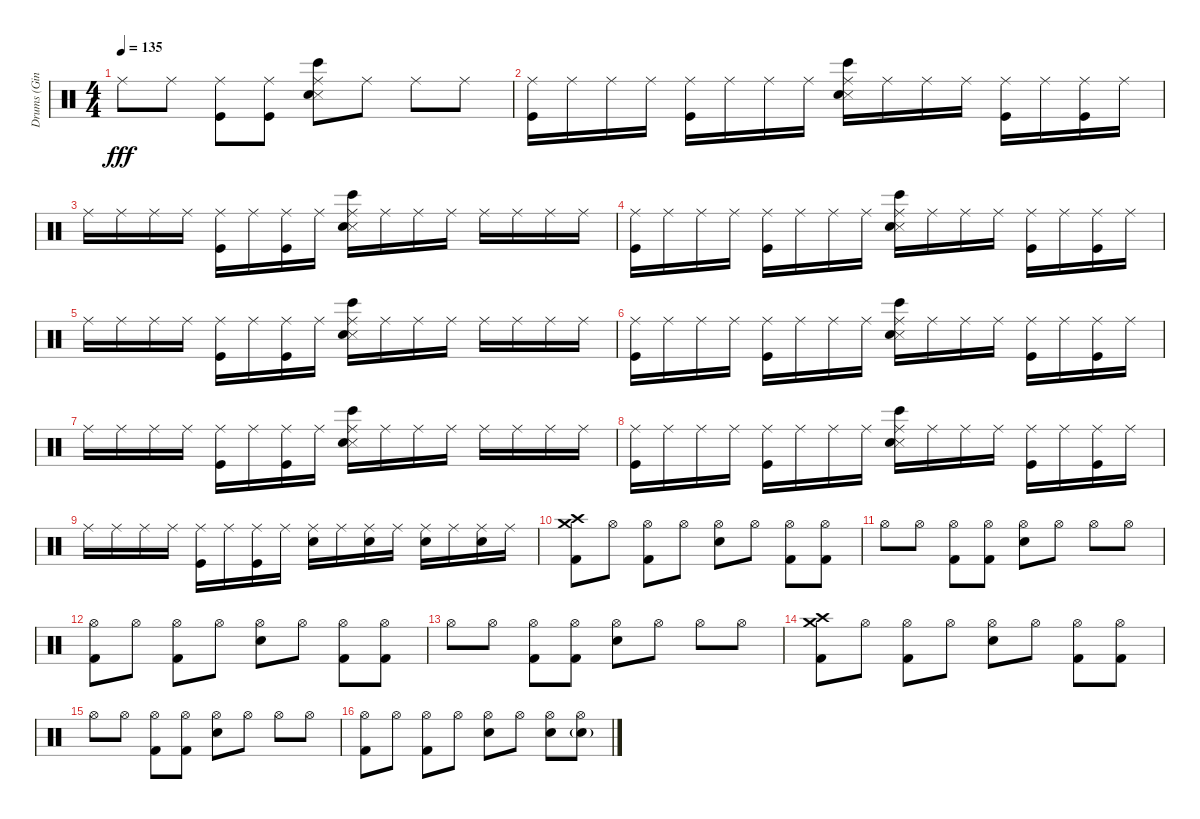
\track ("Drums (Ginger Fish)" "Drums (Gin") {instrument percussion}
\staff {score}
\articulation defaults
\ts (4 4)
\tempo 135
\clef neutral
\ks c "Ride (middle)".8{dy fff} "Ride (middle)".8
("Ride (middle)" "Kick (hit)").8 ("Ride (middle)" "Kick (hit)").8 ("Ride (middle)" "Snare (side stick) 3" "Snare (hit) 2" "Bongo High (hit)").8 "Ride (middle)".8 "Ride (middle)".8 "Ride (middle)".8 |
("Ride (middle)" "Kick (hit)").16 "Ride (middle)".16 "Ride (middle)".16 "Ride (middle)".16 ("Ride (middle)" "Kick (hit)").16 "Ride (middle)".16 "Ride (middle)".16 "Ride (middle)".16 ("Ride (middle)" "Snare (side stick) 3" "Snare (hit) 2" "Bongo High (hit)").16 "Ride (middle)".16 "Ride (middle)".16 "Ride (middle)".16 ("Ride (middle)" "Kick (hit)").16 "Ride (middle)".16 ("Ride (middle)" "Kick (hit)").16 "Ride (middle)".16 |
"Ride (middle)".16 "Ride (middle)".16 "Ride (middle)".16 "Ride (middle)".16 ("Ride (middle)" "Kick (hit)").16 "Ride (middle)".16 ("Ride (middle)" "Kick (hit)").16 "Ride (middle)".16 ("Ride (middle)" "Snare (side stick) 3" "Snare (hit) 2" "Bongo High (hit)").16 "Ride (middle)".16 "Ride (middle)".16 "Ride (middle)".16 "Ride (middle)".16 "Ride (middle)".16 "Ride (middle)".16 "Ride (middle)".16 |
("Ride (middle)" "Kick (hit)").16 "Ride (middle)".16 "Ride (middle)".16 "Ride (middle)".16 ("Ride (middle)" "Kick (hit)").16 "Ride (middle)".16 "Ride (middle)".16 "Ride (middle)".16 ("Ride (middle)" "Snare (side stick) 3" "Snare (hit) 2" "Bongo High (hit)").16 "Ride (middle)".16 "Ride (middle)".16 "Ride (middle)".16 ("Ride (middle)" "Kick (hit)").16 "Ride (middle)".16 ("Ride (middle)" "Kick (hit)").16 "Ride (middle)".16 |
"Ride (middle)".16 "Ride (middle)".16 "Ride (middle)".16 "Ride (middle)".16 ("Ride (middle)" "Kick (hit)").16 "Ride (middle)".16 ("Ride (middle)" "Kick (hit)").16 "Ride (middle)".16 ("Ride (middle)" "Snare (side stick) 3" "Snare (hit) 2" "Bongo High (hit)").16 "Ride (middle)".16 "Ride (middle)".16 "Ride (middle)".16 "Ride (middle)".16 "Ride (middle)".16 "Ride (middle)".16 "Ride (middle)".16 |
("Ride (middle)" "Kick (hit)").16 "Ride (middle)".16 "Ride (middle)".16 "Ride (middle)".16 ("Ride (middle)" "Kick (hit)").16 "Ride (middle)".16 "Ride (middle)".16 "Ride (middle)".16 ("Ride (middle)" "Snare (side stick) 3" "Snare (hit) 2" "Bongo High (hit)").16 "Ride (middle)".16 "Ride (middle)".16 "Ride (middle)".16 ("Ride (middle)" "Kick (hit)").16 "Ride (middle)".16 ("Ride (middle)" "Kick (hit)").16 "Ride (middle)".16 |
"Ride (middle)".16 "Ride (middle)".16 "Ride (middle)".16 "Ride (middle)".16 ("Ride (middle)" "Kick (hit)").16 "Ride (middle)".16 ("Ride (middle)" "Kick (hit)").16 "Ride (middle)".16 ("Ride (middle)" "Snare (side stick) 3" "Snare (hit) 2" "Bongo High (hit)").16 "Ride (middle)".16 "Ride (middle)".16 "Ride (middle)".16 "Ride (middle)".16 "Ride (middle)".16 "Ride (middle)".16 "Ride (middle)".16 |
("Ride (middle)" "Kick (hit)").16 "Ride (middle)".16 "Ride (middle)".16 "Ride (middle)".16 ("Ride (middle)" "Kick (hit)").16 "Ride (middle)".16 "Ride (middle)".16 "Ride (middle)".16 ("Ride (middle)" "Snare (side stick) 3" "Snare (hit) 2" "Bongo High (hit)").16 "Ride (middle)".16 "Ride (middle)".16 "Ride (middle)".16 ("Ride (middle)" "Kick (hit)").16 "Ride (middle)".16 ("Ride (middle)" "Kick (hit)").16 "Ride (middle)".16 |
"Ride (middle)".16 "Ride (middle)".16 "Ride (middle)".16 "Ride (middle)".16 ("Ride (middle)" "Kick (hit)").16 "Ride (middle)".16 ("Ride (middle)" "Kick (hit)").16 "Ride (middle)".16 ("Ride (middle)" "Electric Snare (hit)").16 "Ride (middle)".16 ("Ride (middle)" "Electric Snare (hit)").16 "Ride (middle)".16 ("Ride (middle)" "Electric Snare (hit)").16 "Ride (middle)".16 ("Ride (middle)" "Electric Snare (hit)").16 "Ride (middle)".16 |
("Crash high (hit)" "Crash medium (hit)" "Kick (hit) 2").8 "Hi-Hat (open)".8 ("Hi-Hat (open)" "Kick (hit) 2").8 "Hi-Hat (open)".8 ("Hi-Hat (open)" "Electric Snare (hit)").8 "Hi-Hat (open)".8 ("Hi-Hat (open)" "Kick (hit) 2").8 ("Hi-Hat (open)" "Kick (hit) 2").8 |
"Hi-Hat (open)".8 "Hi-Hat (open)".8 ("Hi-Hat (open)" "Kick (hit) 2").8 ("Hi-Hat (open)" "Kick (hit) 2").8 ("Hi-Hat (open)" "Electric Snare (hit)").8 "Hi-Hat (open)".8 "Hi-Hat (open)".8 "Hi-Hat (open)".8 |
("Hi-Hat (open)" "Kick (hit) 2").8 "Hi-Hat (open)".8 ("Hi-Hat (open)" "Kick (hit) 2").8 "Hi-Hat (open)".8 ("Hi-Hat (open)" "Electric Snare (hit)").8 "Hi-Hat (open)".8 ("Hi-Hat (open)" "Kick (hit) 2").8 ("Hi-Hat (open)" "Kick (hit) 2").8 |
"Hi-Hat (open)".8 "Hi-Hat (open)".8 ("Hi-Hat (open)" "Kick (hit) 2").8 ("Hi-Hat (open)" "Kick (hit) 2").8 ("Hi-Hat (open)" "Electric Snare (hit)").8 "Hi-Hat (open)".8 "Hi-Hat (open)".8 "Hi-Hat (open)".8 |
("Crash high (hit)" "Crash medium (hit)" "Kick (hit) 2").8 "Hi-Hat (open)".8 ("Hi-Hat (open)" "Kick (hit) 2").8 "Hi-Hat (open)".8 ("Hi-Hat (open)" "Electric Snare (hit)").8 "Hi-Hat (open)".8 ("Hi-Hat (open)" "Kick (hit) 2").8 ("Hi-Hat (open)" "Kick (hit) 2").8 |
"Hi-Hat (open)".8 "Hi-Hat (open)".8 ("Hi-Hat (open)" "Kick (hit) 2").8 ("Hi-Hat (open)" "Kick (hit) 2").8 ("Hi-Hat (open)" "Electric Snare (hit)").8 "Hi-Hat (open)".8 "Hi-Hat (open)".8 "Hi-Hat (open)".8 |
("Hi-Hat (open)" "Kick (hit) 2").8 "Hi-Hat (open)".8 ("Hi-Hat (open)" "Kick (hit) 2").8 "Hi-Hat (open)".8 ("Hi-Hat (open)" "Electric Snare (hit)").8 "Hi-Hat (open)".8 ("Hi-Hat (open)" "Electric Snare (hit)").8 ("Hi-Hat (open)" "Electric Snare (hit)"{g}).8
